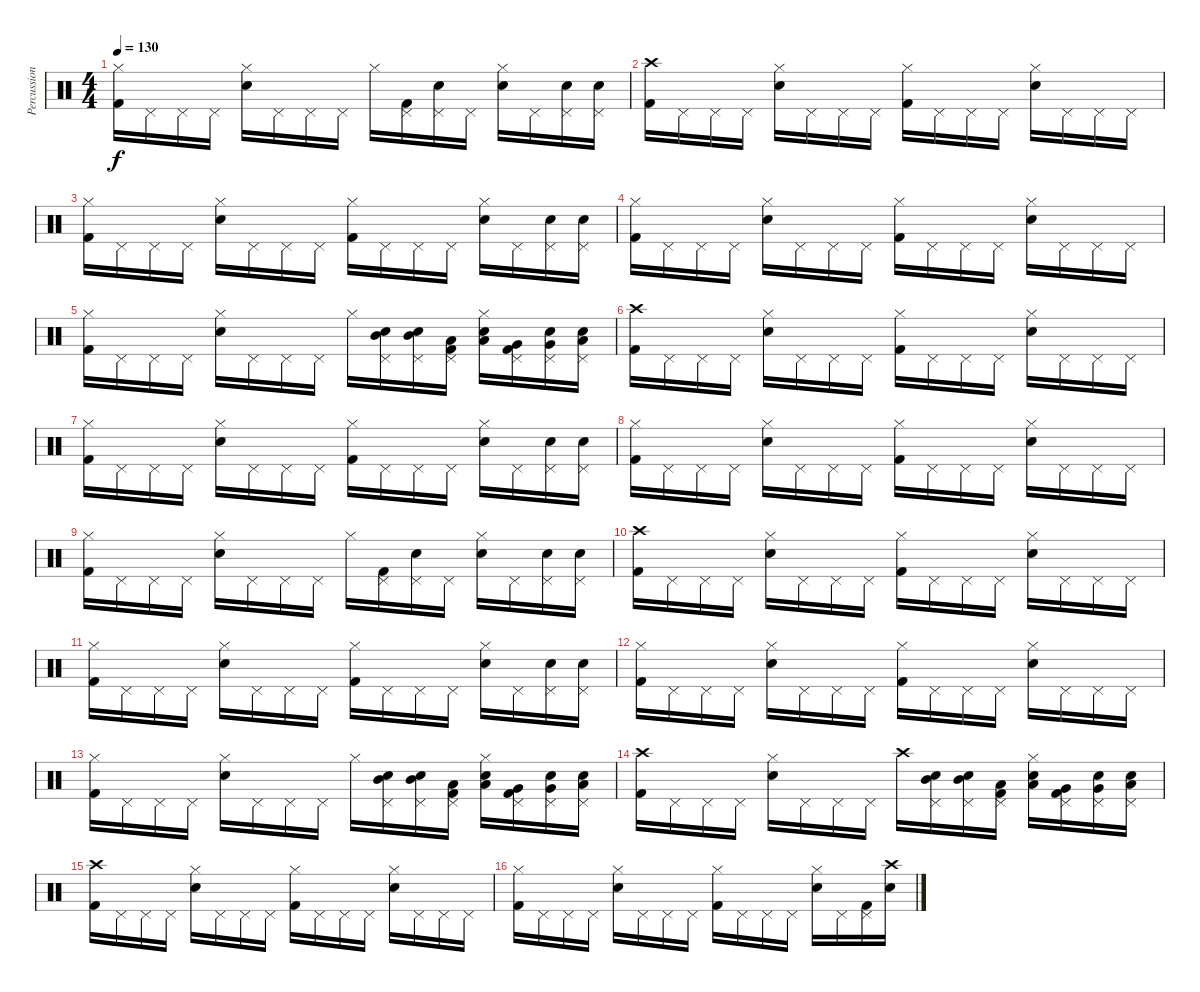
\track ("Percussion" "Percussion") {instrument percussion}
\staff {score}
\articulation defaults
\ts (4 4)
\tempo 130
\clef neutral
\ks c
("Hi-Hat (closed)" "Kick (hit) 2").16{dy f} "Pedal Hi-Hat (hit)".16 "Pedal Hi-Hat (hit)".16 "Pedal Hi-Hat (hit)".16 ("Hi-Hat (closed)" "Snare (hit) 2").16 "Pedal Hi-Hat (hit)".16 "Pedal Hi-Hat (hit)".16 "Pedal Hi-Hat (hit)".16 "Hi-Hat (closed)".16 ("Pedal Hi-Hat (hit)" "Kick (hit) 2").16 ("Pedal Hi-Hat (hit)" "Snare (hit) 2").16 "Pedal Hi-Hat (hit)".16 ("Hi-Hat (closed)" "Snare (hit) 2").16 "Pedal Hi-Hat (hit)".16 ("Pedal Hi-Hat (hit)" "Snare (hit) 2").16 ("Pedal Hi-Hat (hit)" "Snare (hit) 2").16 |
("Crash high (hit)" "Kick (hit) 2").16 "Pedal Hi-Hat (hit)".16 "Pedal Hi-Hat (hit)".16 "Pedal Hi-Hat (hit)".16 ("Hi-Hat (closed)" "Snare (hit) 2").16 "Pedal Hi-Hat (hit)".16 "Pedal Hi-Hat (hit)".16 "Pedal Hi-Hat (hit)".16 ("Hi-Hat (closed)" "Kick (hit) 2").16 "Pedal Hi-Hat (hit)".16 "Pedal Hi-Hat (hit)".16 "Pedal Hi-Hat (hit)".16 ("Hi-Hat (closed)" "Snare (hit) 2").16 "Pedal Hi-Hat (hit)".16 "Pedal Hi-Hat (hit)".16 "Pedal Hi-Hat (hit)".16 |
("Hi-Hat (closed)" "Kick (hit) 2").16 "Pedal Hi-Hat (hit)".16 "Pedal Hi-Hat (hit)".16 "Pedal Hi-Hat (hit)".16 ("Hi-Hat (closed)" "Snare (hit) 2").16 "Pedal Hi-Hat (hit)".16 "Pedal Hi-Hat (hit)".16 "Pedal Hi-Hat (hit)".16 ("Hi-Hat (closed)" "Kick (hit) 2").16 "Pedal Hi-Hat (hit)".16 "Pedal Hi-Hat (hit)".16 "Pedal Hi-Hat (hit)".16 ("Hi-Hat (closed)" "Snare (hit) 2").16 "Pedal Hi-Hat (hit)".16 ("Pedal Hi-Hat (hit)" "Snare (hit) 2").16 ("Pedal Hi-Hat (hit)" "Snare (hit) 2").16 |
("Hi-Hat (closed)" "Kick (hit) 2").16 "Pedal Hi-Hat (hit)".16 "Pedal Hi-Hat (hit)".16 "Pedal Hi-Hat (hit)".16 ("Hi-Hat (closed)" "Snare (hit) 2").16 "Pedal Hi-Hat (hit)".16 "Pedal Hi-Hat (hit)".16 "Pedal Hi-Hat (hit)".16 ("Hi-Hat (closed)" "Kick (hit) 2").16 "Pedal Hi-Hat (hit)".16 "Pedal Hi-Hat (hit)".16 "Pedal Hi-Hat (hit)".16 ("Hi-Hat (closed)" "Snare (hit) 2").16 "Pedal Hi-Hat (hit)".16 "Pedal Hi-Hat (hit)".16 "Pedal Hi-Hat (hit)".16 |
("Hi-Hat (closed)" "Kick (hit) 2").16 "Pedal Hi-Hat (hit)".16 "Pedal Hi-Hat (hit)".16 "Pedal Hi-Hat (hit)".16 ("Hi-Hat (closed)" "Snare (hit) 2").16 "Pedal Hi-Hat (hit)".16 "Pedal Hi-Hat (hit)".16 "Pedal Hi-Hat (hit)".16 "Hi-Hat (closed)".16 ("Pedal Hi-Hat (hit)" "Mid Tom (hit)" "Snare (hit) 2").16 ("Pedal Hi-Hat (hit)" "Mid Tom (hit)" "Snare (hit) 2").16 ("Pedal Hi-Hat (hit)" "Low Tom (hit)" "Kick (hit) 2").16 ("Hi-Hat (closed)" "Low Tom (hit)" "Snare (hit) 2").16 ("Pedal Hi-Hat (hit)" "Very Low Tom (hit)" "Kick (hit) 2").16 ("Pedal Hi-Hat (hit)" "Very Low Tom (hit)" "Snare (hit) 2").16 ("Pedal Hi-Hat (hit)" "Low Floor Tom (hit)" "Snare (hit) 2").16 |
("Crash high (hit)" "Kick (hit) 2").16 "Pedal Hi-Hat (hit)".16 "Pedal Hi-Hat (hit)".16 "Pedal Hi-Hat (hit)".16 ("Hi-Hat (closed)" "Snare (hit) 2").16 "Pedal Hi-Hat (hit)".16 "Pedal Hi-Hat (hit)".16 "Pedal Hi-Hat (hit)".16 ("Hi-Hat (closed)" "Kick (hit) 2").16 "Pedal Hi-Hat (hit)".16 "Pedal Hi-Hat (hit)".16 "Pedal Hi-Hat (hit)".16 ("Hi-Hat (closed)" "Snare (hit) 2").16 "Pedal Hi-Hat (hit)".16 "Pedal Hi-Hat (hit)".16 "Pedal Hi-Hat (hit)".16 |
("Hi-Hat (closed)" "Kick (hit) 2").16 "Pedal Hi-Hat (hit)".16 "Pedal Hi-Hat (hit)".16 "Pedal Hi-Hat (hit)".16 ("Hi-Hat (closed)" "Snare (hit) 2").16 "Pedal Hi-Hat (hit)".16 "Pedal Hi-Hat (hit)".16 "Pedal Hi-Hat (hit)".16 ("Hi-Hat (closed)" "Kick (hit) 2").16 "Pedal Hi-Hat (hit)".16 "Pedal Hi-Hat (hit)".16 "Pedal Hi-Hat (hit)".16 ("Hi-Hat (closed)" "Snare (hit) 2").16 "Pedal Hi-Hat (hit)".16 ("Pedal Hi-Hat (hit)" "Snare (hit) 2").16 ("Pedal Hi-Hat (hit)" "Snare (hit) 2").16 |
("Hi-Hat (closed)" "Kick (hit) 2").16 "Pedal Hi-Hat (hit)".16 "Pedal Hi-Hat (hit)".16 "Pedal Hi-Hat (hit)".16 ("Hi-Hat (closed)" "Snare (hit) 2").16 "Pedal Hi-Hat (hit)".16 "Pedal Hi-Hat (hit)".16 "Pedal Hi-Hat (hit)".16 ("Hi-Hat (closed)" "Kick (hit) 2").16 "Pedal Hi-Hat (hit)".16 "Pedal Hi-Hat (hit)".16 "Pedal Hi-Hat (hit)".16 ("Hi-Hat (closed)" "Snare (hit) 2").16 "Pedal Hi-Hat (hit)".16 "Pedal Hi-Hat (hit)".16 "Pedal Hi-Hat (hit)".16 |
("Hi-Hat (closed)" "Kick (hit) 2").16 "Pedal Hi-Hat (hit)".16 "Pedal Hi-Hat (hit)".16 "Pedal Hi-Hat (hit)".16 ("Hi-Hat (closed)" "Snare (hit) 2").16 "Pedal Hi-Hat (hit)".16 "Pedal Hi-Hat (hit)".16 "Pedal Hi-Hat (hit)".16 "Hi-Hat (closed)".16 ("Pedal Hi-Hat (hit)" "Kick (hit) 2").16 ("Pedal Hi-Hat (hit)" "Snare (hit) 2").16 "Pedal Hi-Hat (hit)".16 ("Hi-Hat (closed)" "Snare (hit) 2").16 "Pedal Hi-Hat (hit)".16 ("Pedal Hi-Hat (hit)" "Snare (hit) 2").16 ("Pedal Hi-Hat (hit)" "Snare (hit) 2").16 |
("Crash high (hit)" "Kick (hit) 2").16 "Pedal Hi-Hat (hit)".16 "Pedal Hi-Hat (hit)".16 "Pedal Hi-Hat (hit)".16 ("Hi-Hat (closed)" "Snare (hit) 2").16 "Pedal Hi-Hat (hit)".16 "Pedal Hi-Hat (hit)".16 "Pedal Hi-Hat (hit)".16 ("Hi-Hat (closed)" "Kick (hit) 2").16 "Pedal Hi-Hat (hit)".16 "Pedal Hi-Hat (hit)".16 "Pedal Hi-Hat (hit)".16 ("Hi-Hat (closed)" "Snare (hit) 2").16 "Pedal Hi-Hat (hit)".16 "Pedal Hi-Hat (hit)".16 "Pedal Hi-Hat (hit)".16 |
("Hi-Hat (closed)" "Kick (hit) 2").16 "Pedal Hi-Hat (hit)".16 "Pedal Hi-Hat (hit)".16 "Pedal Hi-Hat (hit)".16 ("Hi-Hat (closed)" "Snare (hit) 2").16 "Pedal Hi-Hat (hit)".16 "Pedal Hi-Hat (hit)".16 "Pedal Hi-Hat (hit)".16 ("Hi-Hat (closed)" "Kick (hit) 2").16 "Pedal Hi-Hat (hit)".16 "Pedal Hi-Hat (hit)".16 "Pedal Hi-Hat (hit)".16 ("Hi-Hat (closed)" "Snare (hit) 2").16 "Pedal Hi-Hat (hit)".16 ("Pedal Hi-Hat (hit)" "Snare (hit) 2").16 ("Pedal Hi-Hat (hit)" "Snare (hit) 2").16 |
("Hi-Hat (closed)" "Kick (hit) 2").16 "Pedal Hi-Hat (hit)".16 "Pedal Hi-Hat (hit)".16 "Pedal Hi-Hat (hit)".16 ("Hi-Hat (closed)" "Snare (hit) 2").16 "Pedal Hi-Hat (hit)".16 "Pedal Hi-Hat (hit)".16 "Pedal Hi-Hat (hit)".16 ("Hi-Hat (closed)" "Kick (hit) 2").16 "Pedal Hi-Hat (hit)".16 "Pedal Hi-Hat (hit)".16 "Pedal Hi-Hat (hit)".16 ("Hi-Hat (closed)" "Snare (hit) 2").16 "Pedal Hi-Hat (hit)".16 "Pedal Hi-Hat (hit)".16 "Pedal Hi-Hat (hit)".16 |
("Hi-Hat (closed)" "Kick (hit) 2").16 "Pedal Hi-Hat (hit)".16 "Pedal Hi-Hat (hit)".16 "Pedal Hi-Hat (hit)".16 ("Hi-Hat (closed)" "Snare (hit) 2").16 "Pedal Hi-Hat (hit)".16 "Pedal Hi-Hat (hit)".16 "Pedal Hi-Hat (hit)".16 "Hi-Hat (closed)".16 ("Pedal Hi-Hat (hit)" "Mid Tom (hit)" "Snare (hit) 2").16 ("Pedal Hi-Hat (hit)" "Mid Tom (hit)" "Snare (hit) 2").16 ("Pedal Hi-Hat (hit)" "Low Tom (hit)" "Kick (hit) 2").16 ("Hi-Hat (closed)" "Low Tom (hit)" "Snare (hit) 2").16 ("Pedal Hi-Hat (hit)" "Very Low Tom (hit)" "Kick (hit) 2").16 ("Pedal Hi-Hat (hit)" "Very Low Tom (hit)" "Snare (hit) 2").16 ("Pedal Hi-Hat (hit)" "Low Floor Tom (hit)" "Snare (hit) 2").16 |
("Crash high (hit)" "Kick (hit) 2").16 "Pedal Hi-Hat (hit)".16 "Pedal Hi-Hat (hit)".16 "Pedal Hi-Hat (hit)".16 ("Hi-Hat (closed)" "Snare (hit) 2").16 "Pedal Hi-Hat (hit)".16 "Pedal Hi-Hat (hit)".16 "Pedal Hi-Hat (hit)".16 "Crash high (hit)".16 ("Pedal Hi-Hat (hit)" "Mid Tom (hit)" "Snare (hit) 2").16 ("Pedal Hi-Hat (hit)" "Mid Tom (hit)" "Snare (hit) 2").16 ("Pedal Hi-Hat (hit)" "Low Tom (hit)" "Kick (hit) 2").16 ("Hi-Hat (closed)" "Low Tom (hit)" "Snare (hit) 2").16 ("Pedal Hi-Hat (hit)" "Very Low Tom (hit)" "Kick (hit) 2").16 ("Pedal Hi-Hat (hit)" "Very Low Tom (hit)" "Snare (hit) 2").16 ("Pedal Hi-Hat (hit)" "Low Floor Tom (hit)" "Snare (hit) 2").16 |
("Crash high (hit)" "Kick (hit) 2").16 "Pedal Hi-Hat (hit)".16 "Pedal Hi-Hat (hit)".16 "Pedal Hi-Hat (hit)".16 ("Hi-Hat (closed)" "Snare (hit) 2").16 "Pedal Hi-Hat (hit)".16 "Pedal Hi-Hat (hit)".16 "Pedal Hi-Hat (hit)".16 ("Hi-Hat (closed)" "Kick (hit) 2").16 "Pedal Hi-Hat (hit)".16 "Pedal Hi-Hat (hit)".16 "Pedal Hi-Hat (hit)".16 ("Hi-Hat (closed)" "Snare (hit) 2").16 "Pedal Hi-Hat (hit)".16 "Pedal Hi-Hat (hit)".16 "Pedal Hi-Hat (hit)".16 |
("Hi-Hat (closed)" "Kick (hit) 2").16 "Pedal Hi-Hat (hit)".16 "Pedal Hi-Hat (hit)".16 "Pedal Hi-Hat (hit)".16 ("Hi-Hat (closed)" "Snare (hit) 2").16 "Pedal Hi-Hat (hit)".16 "Pedal Hi-Hat (hit)".16 "Pedal Hi-Hat (hit)".16 ("Hi-Hat (closed)" "Kick (hit) 2").16 "Pedal Hi-Hat (hit)".16 "Pedal Hi-Hat (hit)".16 "Pedal Hi-Hat (hit)".16 ("Hi-Hat (closed)" "Snare (hit) 2").16 "Pedal Hi-Hat (hit)".16 ("Pedal Hi-Hat (hit)" "Kick (hit) 2").16 ("Crash high (hit)" "Snare (hit) 2").16
